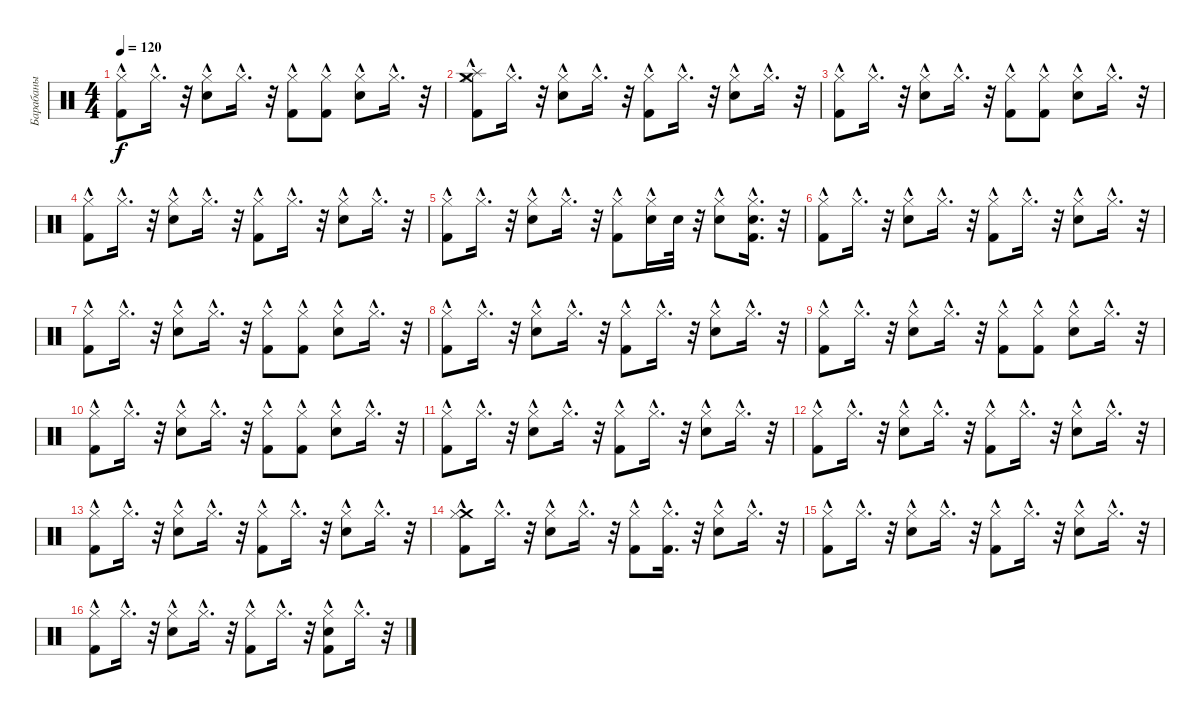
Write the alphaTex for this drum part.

\track ("Барабаны" "Барабаны") {instrument percussion}
\staff {score}
\articulation defaults
\ts (4 4)
\tempo 120
\clef neutral
\ks c
("Kick (hit) 2" "Hi-Hat (closed)"{hac}).8{dy f} "Hi-Hat (closed)"{hac}.16{d} r.32 ("Electric Snare (hit)" "Hi-Hat (closed)"{hac}).8 "Hi-Hat (closed)"{hac}.16{d} r.32 ("Kick (hit) 2" "Hi-Hat (closed)"{hac}).8 ("Kick (hit) 2" "Hi-Hat (closed)"{hac}).8 ("Electric Snare (hit)" "Hi-Hat (closed)"{hac}).8 "Hi-Hat (closed)"{hac}.16{d} r.32 |
("Crash medium (hit)" "Splash (hit)" "Kick (hit) 2" "Hi-Hat (closed)"{hac}).8 "Hi-Hat (closed)"{hac}.16{d} r.32 ("Electric Snare (hit)" "Hi-Hat (closed)"{hac}).8 "Hi-Hat (closed)"{hac}.16{d} r.32 ("Kick (hit) 2" "Hi-Hat (closed)"{hac}).8 "Hi-Hat (closed)"{hac}.16{d} r.32 ("Electric Snare (hit)" "Hi-Hat (closed)"{hac}).8 "Hi-Hat (closed)"{hac}.16{d} r.32 |
("Kick (hit) 2" "Hi-Hat (closed)"{hac}).8 "Hi-Hat (closed)"{hac}.16{d} r.32 ("Electric Snare (hit)" "Hi-Hat (closed)"{hac}).8 "Hi-Hat (closed)"{hac}.16{d} r.32 ("Kick (hit) 2" "Hi-Hat (closed)"{hac}).8 ("Kick (hit) 2" "Hi-Hat (closed)"{hac}).8 ("Electric Snare (hit)" "Hi-Hat (closed)"{hac}).8 "Hi-Hat (closed)"{hac}.16{d} r.32 |
("Kick (hit) 2" "Hi-Hat (closed)"{hac}).8 "Hi-Hat (closed)"{hac}.16{d} r.32 ("Electric Snare (hit)" "Hi-Hat (closed)"{hac}).8 "Hi-Hat (closed)"{hac}.16{d} r.32 ("Kick (hit) 2" "Hi-Hat (closed)"{hac}).8 "Hi-Hat (closed)"{hac}.16{d} r.32 ("Electric Snare (hit)" "Hi-Hat (closed)"{hac}).8 "Hi-Hat (closed)"{hac}.16{d} r.32 |
("Kick (hit) 2" "Hi-Hat (closed)"{hac}).8 "Hi-Hat (closed)"{hac}.16{d} r.32 ("Electric Snare (hit)" "Hi-Hat (closed)"{hac}).8 "Hi-Hat (closed)"{hac}.16{d} r.32 ("Kick (hit) 2" "Hi-Hat (closed)"{hac}).8 ("Electric Snare (hit)" "Hi-Hat (closed)"{hac}).16 "Snare (hit) 2".32 r.32 ("Electric Snare (hit)" "Hi-Hat (closed)"{hac}).8 ("Electric Snare (hit)" "Kick (hit) 2" "Hi-Hat (closed)"{hac}).16{d} r.32 |
("Kick (hit) 2" "Hi-Hat (closed)"{hac}).8 "Hi-Hat (closed)"{hac}.16{d} r.32 ("Electric Snare (hit)" "Hi-Hat (closed)"{hac}).8 "Hi-Hat (closed)"{hac}.16{d} r.32 ("Kick (hit) 2" "Hi-Hat (closed)"{hac}).8 "Hi-Hat (closed)"{hac}.16{d} r.32 ("Electric Snare (hit)" "Hi-Hat (closed)"{hac}).8 "Hi-Hat (closed)"{hac}.16{d} r.32 |
("Kick (hit) 2" "Hi-Hat (closed)"{hac}).8 "Hi-Hat (closed)"{hac}.16{d} r.32 ("Electric Snare (hit)" "Hi-Hat (closed)"{hac}).8 "Hi-Hat (closed)"{hac}.16{d} r.32 ("Kick (hit) 2" "Hi-Hat (closed)"{hac}).8 ("Kick (hit) 2" "Hi-Hat (closed)"{hac}).8 ("Electric Snare (hit)" "Hi-Hat (closed)"{hac}).8 "Hi-Hat (closed)"{hac}.16{d} r.32 |
("Kick (hit) 2" "Hi-Hat (closed)"{hac}).8 "Hi-Hat (closed)"{hac}.16{d} r.32 ("Electric Snare (hit)" "Hi-Hat (closed)"{hac}).8 "Hi-Hat (closed)"{hac}.16{d} r.32 ("Kick (hit) 2" "Hi-Hat (closed)"{hac}).8 "Hi-Hat (closed)"{hac}.16{d} r.32 ("Electric Snare (hit)" "Hi-Hat (closed)"{hac}).8 "Hi-Hat (closed)"{hac}.16{d} r.32 |
("Kick (hit) 2" "Hi-Hat (closed)"{hac}).8 "Hi-Hat (closed)"{hac}.16{d} r.32 ("Electric Snare (hit)" "Hi-Hat (closed)"{hac}).8 "Hi-Hat (closed)"{hac}.16{d} r.32 ("Kick (hit) 2" "Hi-Hat (closed)"{hac}).8 ("Kick (hit) 2" "Hi-Hat (closed)"{hac}).8 ("Electric Snare (hit)" "Hi-Hat (closed)"{hac}).8 "Hi-Hat (closed)"{hac}.16{d} r.32 |
("Kick (hit) 2" "Hi-Hat (closed)"{hac}).8 "Hi-Hat (closed)"{hac}.16{d} r.32 ("Electric Snare (hit)" "Hi-Hat (closed)"{hac}).8 "Hi-Hat (closed)"{hac}.16{d} r.32 ("Kick (hit) 2" "Hi-Hat (closed)"{hac}).8 ("Kick (hit) 2" "Hi-Hat (closed)"{hac}).8 ("Electric Snare (hit)" "Hi-Hat (closed)"{hac}).8 "Hi-Hat (closed)"{hac}.16{d} r.32 |
("Kick (hit) 2" "Hi-Hat (closed)"{hac}).8 "Hi-Hat (closed)"{hac}.16{d} r.32 ("Electric Snare (hit)" "Hi-Hat (closed)"{hac}).8 "Hi-Hat (closed)"{hac}.16{d} r.32 ("Kick (hit) 2" "Hi-Hat (closed)"{hac}).8 "Hi-Hat (closed)"{hac}.16{d} r.32 ("Electric Snare (hit)" "Hi-Hat (closed)"{hac}).8 "Hi-Hat (closed)"{hac}.16{d} r.32 |
("Kick (hit) 2" "Hi-Hat (closed)"{hac}).8 "Hi-Hat (closed)"{hac}.16{d} r.32 ("Electric Snare (hit)" "Hi-Hat (closed)"{hac}).8 "Hi-Hat (closed)"{hac}.16{d} r.32 ("Kick (hit) 2" "Hi-Hat (closed)"{hac}).8 "Hi-Hat (closed)"{hac}.16{d} r.32 ("Electric Snare (hit)" "Hi-Hat (closed)"{hac}).8 "Hi-Hat (closed)"{hac}.16{d} r.32 |
("Kick (hit) 2" "Hi-Hat (closed)"{hac}).8 "Hi-Hat (closed)"{hac}.16{d} r.32 ("Electric Snare (hit)" "Hi-Hat (closed)"{hac}).8 "Hi-Hat (closed)"{hac}.16{d} r.32 ("Kick (hit) 2" "Hi-Hat (closed)"{hac}).8 "Hi-Hat (closed)"{hac}.16{d} r.32 ("Electric Snare (hit)" "Hi-Hat (closed)"{hac}).8 "Hi-Hat (closed)"{hac}.16{d} r.32 |
("Crash medium (hit)" "Kick (hit) 2" "Hi-Hat (closed)"{hac}).8 "Hi-Hat (closed)"{hac}.16{d} r.32 ("Electric Snare (hit)" "Hi-Hat (closed)"{hac}).8 "Hi-Hat (closed)"{hac}.16{d} r.32 ("Kick (hit) 2" "Hi-Hat (closed)"{hac}).8 ("Kick (hit) 2"{hac} "Hi-Hat (closed)"{hac}).16{d} r.32 ("Electric Snare (hit)" "Hi-Hat (closed)"{hac}).8 "Hi-Hat (closed)"{hac}.16{d} r.32 |
("Kick (hit) 2" "Hi-Hat (closed)"{hac}).8 "Hi-Hat (closed)"{hac}.16{d} r.32 ("Electric Snare (hit)" "Hi-Hat (closed)"{hac}).8 "Hi-Hat (closed)"{hac}.16{d} r.32 ("Kick (hit) 2" "Hi-Hat (closed)"{hac}).8 "Hi-Hat (closed)"{hac}.16{d} r.32 ("Electric Snare (hit)" "Hi-Hat (closed)"{hac}).8 "Hi-Hat (closed)"{hac}.16{d} r.32 |
("Kick (hit) 2" "Hi-Hat (closed)"{hac}).8 "Hi-Hat (closed)"{hac}.16{d} r.32 ("Electric Snare (hit)" "Hi-Hat (closed)"{hac}).8 "Hi-Hat (closed)"{hac}.16{d} r.32 ("Kick (hit) 2" "Hi-Hat (closed)"{hac}).8 "Hi-Hat (closed)"{hac}.16{d} r.32 ("Kick (hit) 2"{hac} "Electric Snare (hit)" "Hi-Hat (closed)"{hac}).8 "Hi-Hat (closed)"{hac}.16{d} r.32
